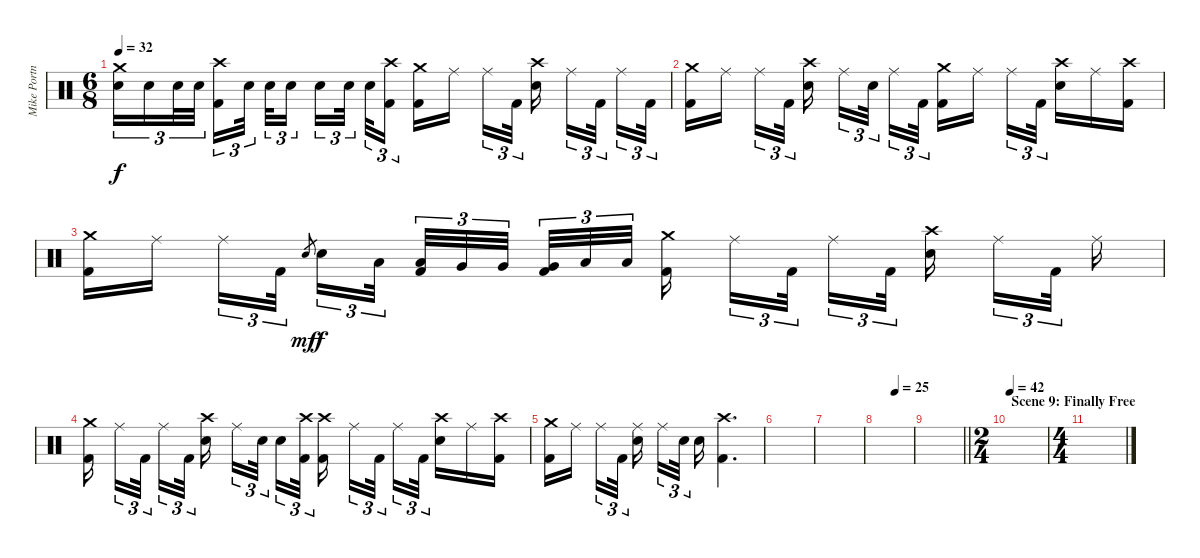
\track ("Mike Portnoy" "Mike Portn") {instrument percussion}
\staff {score}
\articulation defaults
\ts (6 8)
\tempo 32
\clef neutral
\ks c
("Crash medium (hit)" "Snare (hit) 2").16{tu (3 2) dy f} "Snare (hit) 2".16{tu (3 2)} "Snare (hit) 2".32{tu (3 2)} "Snare (hit) 2".32{tu (3 2) beam splitsecondary} ("Crash high (hit)" "Kick (hit) 2").16{tu (3 2)} "Snare (hit) 2".32{tu (3 2) beam splitsecondary} "Snare (hit) 2".32{tu (3 2)} "Snare (hit) 2".16{tu (3 2) beam splitsecondary} "Snare (hit) 2".16{tu (3 2)} "Snare (hit) 2".32{tu (3 2) beam splitsecondary} "Snare (hit) 2".32{tu (3 2)} ("Crash high (hit)" "Kick (hit) 2").16{tu (3 2)} ("Crash medium (hit)" "Kick (hit) 2").16 "Ride (middle)".16{beam splitsecondary} "Ride (middle)".16{tu (3 2)} "Kick (hit) 2".32{tu (3 2) beam splitsecondary} ("Crash high (hit)" "Electric Snare (hit)").16{beam splitsecondary} "Ride (middle)".16{tu (3 2)} "Kick (hit) 2".32{tu (3 2) beam splitsecondary} "Ride (middle)".16{tu (3 2)} "Kick (hit) 2".32{tu (3 2)} |
("Crash medium (hit)" "Kick (hit) 2").16 "Ride (middle)".16{beam splitsecondary} "Ride (middle)".16{tu (3 2)} "Kick (hit) 2".32{tu (3 2) beam splitsecondary} ("Crash high (hit)" "Snare (hit) 2").16{beam splitsecondary} "Ride (middle)".16{tu (3 2)} "Snare (hit) 2".32{tu (3 2) beam splitsecondary} "Ride (middle)".16{tu (3 2)} "Kick (hit) 2".32{tu (3 2)} ("Crash medium (hit)" "Kick (hit) 2").16 "Ride (middle)".16{beam splitsecondary} "Ride (middle)".16{tu (3 2)} "Kick (hit) 2".32{tu (3 2) beam splitsecondary} ("Crash high (hit)" "Snare (hit) 2").16 "Ride (middle)".16 ("Crash high (hit)" "Kick (hit) 2").16 |
("Crash medium (hit)" "Kick (hit) 2").16 "Ride (middle)".16{beam splitsecondary} "Ride (middle)".16{tu (3 2)} "Kick (hit) 2".32{tu (3 2)} "Snare (hit) 2".8{gr dy mf beam splitsecondary} "Snare (hit) 2".16{tu (3 2) dy f} "Low Tom (hit)".32{tu (3 2) beam splitsecondary} ("Low Tom (hit)" "Kick (hit) 2").32{tu (3 2)} "Very Low Tom (hit)".32{tu (3 2)} "Very Low Tom (hit)".32{tu (3 2) beam splitsecondary} ("Very Low Tom (hit)" "Kick (hit) 2").32{tu (3 2)} "Low Floor Tom (hit)".32{tu (3 2)} "Low Floor Tom (hit)".32{tu (3 2)} ("Crash medium (hit)" "Kick (hit) 2").16{beam splitsecondary} "Ride (middle)".16{tu (3 2)} "Kick (hit) 2".32{tu (3 2) beam splitsecondary} "Ride (middle)".16{tu (3 2)} "Kick (hit) 2".32{tu (3 2) beam splitsecondary} ("Crash high (hit)" "Snare (hit) 2").16{beam splitsecondary} "Ride (middle)".16{tu (3 2)} "Kick (hit) 2".32{tu (3 2) beam splitsecondary} "Ride (middle)".16 |
("Crash medium (hit)" "Kick (hit) 2").16{beam splitsecondary} "Ride (middle)".16{tu (3 2)} "Kick (hit) 2".32{tu (3 2) beam splitsecondary} "Ride (middle)".16{tu (3 2)} "Kick (hit) 2".32{tu (3 2) beam splitsecondary} ("Crash high (hit)" "Snare (hit) 2").16{beam splitsecondary} "Ride (middle)".16{tu (3 2)} "Snare (hit) 2".32{tu (3 2) beam splitsecondary} "Snare (hit) 2".16{tu (3 2)} ("Crash high (hit)" "Kick (hit) 2").32{tu (3 2)} ("Crash high (hit)" "Kick (hit) 2").16{beam splitsecondary} "Ride (middle)".16{tu (3 2)} "Kick (hit) 2".32{tu (3 2) beam splitsecondary} "Ride (middle)".16{tu (3 2)} "Kick (hit) 2".32{tu (3 2) beam splitsecondary} ("Crash high (hit)" "Snare (hit) 2").16 "Ride (middle)".16 ("Crash high (hit)" "Kick (hit) 2").16 |
("Crash medium (hit)" "Kick (hit) 2").16 "Ride (middle)".16{beam splitsecondary} "Ride (middle)".16{tu (3 2)} "Kick (hit) 2".32{tu (3 2) beam splitsecondary} ("Ride (middle)" "Snare (hit) 2").16{beam splitsecondary} "Ride (middle)".16{tu (3 2)} "Snare (hit) 2".32{tu (3 2) beam splitsecondary} "Snare (hit) 2".16 ("Crash high (hit)" "Kick (hit) 2").4{d} |
|
|
\tempo (25 0.5)
|
\barLineRight lightlight
|
\ts (2 4)
\section ("" "Scene 9: Finally Free")
\tempo 42
|
\ts (4 4)
